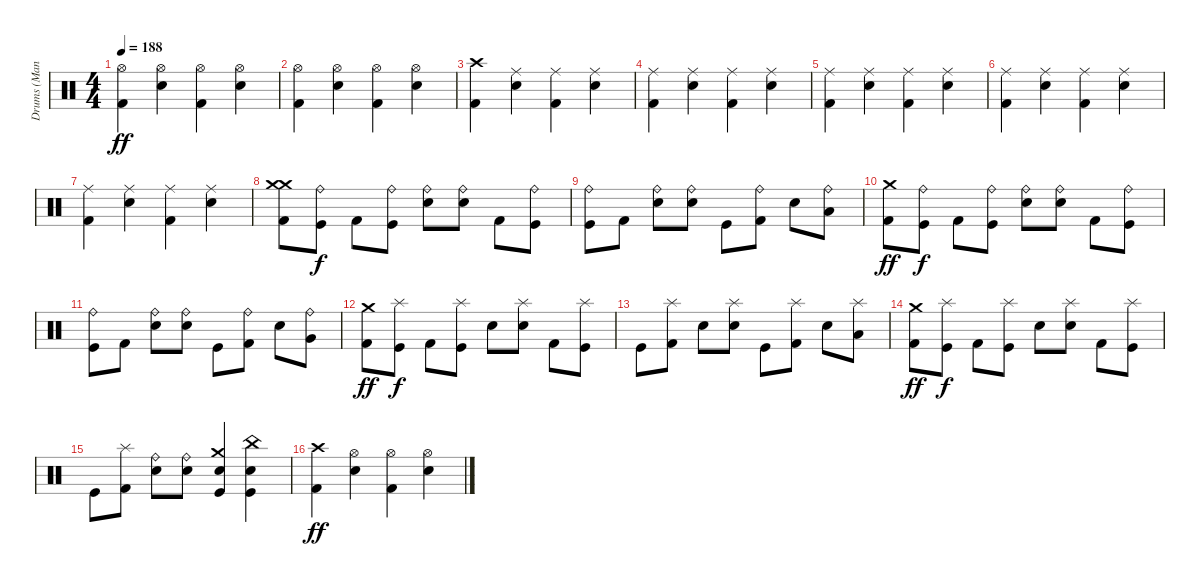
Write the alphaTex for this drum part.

\track ("Drums (Manheim)" "Drums (Man") {instrument percussion}
\staff {score}
\articulation defaults
\ts (4 4)
\tempo 188
\clef neutral
\ks c
("Hi-Hat (open)" "Kick (hit) 2").4{dy ff} ("Hi-Hat (open)" "Electric Snare (hit)").4 ("Hi-Hat (open)" "Kick (hit) 2").4 ("Hi-Hat (open)" "Electric Snare (hit)").4 |
("Hi-Hat (open)" "Kick (hit) 2").4 ("Hi-Hat (open)" "Electric Snare (hit)").4 ("Hi-Hat (open)" "Kick (hit) 2").4 ("Hi-Hat (open)" "Electric Snare (hit)").4 |
("Crash high (hit)" "Kick (hit) 2").4 ("Ride (middle)" "Electric Snare (hit)").4 ("Ride (middle)" "Kick (hit) 2").4 ("Ride (middle)" "Electric Snare (hit)").4 |
("Ride (middle)" "Kick (hit) 2").4 ("Ride (middle)" "Electric Snare (hit)").4 ("Ride (middle)" "Kick (hit) 2").4 ("Ride (middle)" "Electric Snare (hit)").4 |
("Ride (middle)" "Kick (hit) 2").4 ("Ride (middle)" "Electric Snare (hit)").4 ("Ride (middle)" "Kick (hit) 2").4 ("Ride (middle)" "Electric Snare (hit)").4 |
("Ride (middle)" "Kick (hit) 2").4 ("Ride (middle)" "Electric Snare (hit)").4 ("Ride (middle)" "Kick (hit) 2").4 ("Ride (middle)" "Electric Snare (hit)").4 |
("Ride (middle)" "Kick (hit) 2").4 ("Ride (middle)" "Electric Snare (hit)").4 ("Ride (middle)" "Kick (hit) 2").4 ("Ride (middle)" "Electric Snare (hit)").4 |
("Crash medium (hit)" "Crash medium (hit)" "Kick (hit) 2").8 ("Ride (bell)" "Kick (hit)").8{dy f} "Kick (hit) 2".8 ("Ride (bell)" "Kick (hit)").8 ("Ride (bell)" "Electric Snare (hit)").8 ("Ride (bell)" "Electric Snare (hit)").8 "Kick (hit) 2".8 ("Ride (bell)" "Kick (hit)").8 |
("Ride (bell)" "Kick (hit)").8 "Kick (hit) 2".8 ("Ride (bell)" "Electric Snare (hit)").8 ("Ride (bell)" "Electric Snare (hit)").8 "Kick (hit)".8 ("Ride (bell)" "Kick (hit) 2").8 "Electric Snare (hit)".8 ("Ride (bell)" "Low Tom (hit)").8 |
("Crash medium (hit)" "Kick (hit) 2").8{dy ff} ("Ride (bell)" "Kick (hit)").8{dy f} "Kick (hit) 2".8 ("Ride (bell)" "Kick (hit)").8 ("Ride (bell)" "Electric Snare (hit)").8 ("Ride (bell)" "Electric Snare (hit)").8 "Kick (hit) 2".8 ("Ride (bell)" "Kick (hit)").8 |
("Ride (bell)" "Kick (hit)").8 "Kick (hit) 2".8 ("Ride (bell)" "Electric Snare (hit)").8 ("Ride (bell)" "Electric Snare (hit)").8 "Kick (hit)".8 ("Ride (bell)" "Kick (hit) 2").8 "Electric Snare (hit)".8 ("Ride (bell)" "Very Low Tom (hit)").8 |
("Crash medium (hit)" "Kick (hit) 2").8{dy ff} ("Splash (hit)" "Kick (hit)").8{dy f} "Kick (hit) 2".8 ("Splash (hit)" "Kick (hit)").8 "Electric Snare (hit)".8 ("Splash (hit)" "Electric Snare (hit)").8 "Kick (hit) 2".8 ("Splash (hit)" "Kick (hit)").8 |
"Kick (hit)".8 ("Splash (hit)" "Kick (hit) 2").8 "Electric Snare (hit)".8 ("Splash (hit)" "Electric Snare (hit)").8 "Kick (hit)".8 ("Splash (hit)" "Kick (hit) 2").8 "Electric Snare (hit)".8 ("Splash (hit)" "Low Tom (hit)").8 |
("Crash medium (hit)" "Kick (hit) 2").8{dy ff} ("Splash (hit)" "Kick (hit)").8{dy f} "Kick (hit) 2".8 ("Splash (hit)" "Kick (hit)").8 "Electric Snare (hit)".8 ("Splash (hit)" "Electric Snare (hit)").8 "Kick (hit) 2".8 ("Splash (hit)" "Kick (hit)").8 |
"Kick (hit)".8 ("Splash (hit)" "Kick (hit) 2").8 ("Ride (bell)" "Electric Snare (hit)").8 ("Ride (bell)" "Electric Snare (hit)").8 ("Crash medium (hit)" "Electric Snare (hit)" "Kick (hit)").4 ("China (hit)" "Electric Snare (hit)" "Kick (hit)").4 |
("Crash high (hit)" "Kick (hit) 2").4{dy ff} ("Hi-Hat (open)" "Electric Snare (hit)").4 ("Hi-Hat (open)" "Kick (hit) 2").4 ("Hi-Hat (open)" "Electric Snare (hit)").4
